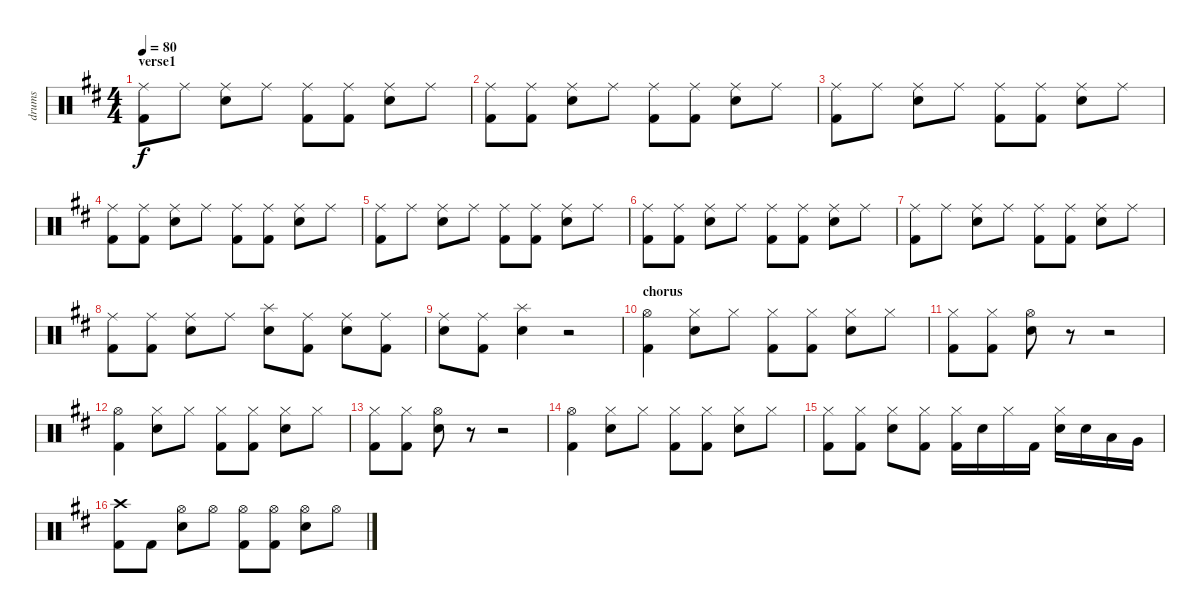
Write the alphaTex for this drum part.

\track ("drums" "drums") {instrument percussion}
\staff {score}
\articulation defaults
\ts (4 4)
\section ("" "verse1")
\tempo 80
\clef neutral
\ks bminor
("Ride (middle)" "Kick (hit) 2").8{dy f} "Ride (middle)".8 ("Ride (middle)" "Electric Snare (hit)").8 "Ride (middle)".8 ("Ride (middle)" "Kick (hit) 2").8 ("Ride (middle)" "Kick (hit) 2").8 ("Ride (middle)" "Electric Snare (hit)").8 "Ride (middle)".8 |
("Ride (middle)" "Kick (hit) 2").8 ("Ride (middle)" "Kick (hit) 2").8 ("Ride (middle)" "Electric Snare (hit)").8 "Ride (middle)".8 ("Ride (middle)" "Kick (hit) 2").8 ("Ride (middle)" "Kick (hit) 2").8 ("Ride (middle)" "Electric Snare (hit)").8 "Ride (middle)".8 |
("Ride (middle)" "Kick (hit) 2").8 "Ride (middle)".8 ("Ride (middle)" "Electric Snare (hit)").8 "Ride (middle)".8 ("Ride (middle)" "Kick (hit) 2").8 ("Ride (middle)" "Kick (hit) 2").8 ("Ride (middle)" "Electric Snare (hit)").8 "Ride (middle)".8 |
("Ride (middle)" "Kick (hit) 2").8 ("Ride (middle)" "Kick (hit) 2").8 ("Ride (middle)" "Electric Snare (hit)").8 "Ride (middle)".8 ("Ride (middle)" "Kick (hit) 2").8 ("Ride (middle)" "Kick (hit) 2").8 ("Ride (middle)" "Electric Snare (hit)").8 "Ride (middle)".8 |
("Ride (middle)" "Kick (hit) 2").8 "Ride (middle)".8 ("Ride (middle)" "Electric Snare (hit)").8 "Ride (middle)".8 ("Ride (middle)" "Kick (hit) 2").8 ("Ride (middle)" "Kick (hit) 2").8 ("Ride (middle)" "Electric Snare (hit)").8 "Ride (middle)".8 |
("Ride (middle)" "Kick (hit) 2").8 ("Ride (middle)" "Kick (hit) 2").8 ("Ride (middle)" "Electric Snare (hit)").8 "Ride (middle)".8 ("Ride (middle)" "Kick (hit) 2").8 ("Ride (middle)" "Kick (hit) 2").8 ("Ride (middle)" "Electric Snare (hit)").8 "Ride (middle)".8 |
("Ride (middle)" "Kick (hit) 2").8 "Ride (middle)".8 ("Ride (middle)" "Electric Snare (hit)").8 "Ride (middle)".8 ("Ride (middle)" "Kick (hit) 2").8 ("Ride (middle)" "Kick (hit) 2").8 ("Ride (middle)" "Electric Snare (hit)").8 "Ride (middle)".8 |
("Ride (middle)" "Kick (hit) 2").8 ("Ride (middle)" "Kick (hit) 2").8 ("Ride (middle)" "Electric Snare (hit)").8 "Ride (middle)".8 ("Splash (hit)" "Electric Snare (hit)").8 ("Ride (middle)" "Kick (hit) 2").8 ("Ride (middle)" "Electric Snare (hit)").8 ("Ride (middle)" "Kick (hit) 2").8 |
("Ride (middle)" "Electric Snare (hit)").8 ("Ride (middle)" "Kick (hit) 2").8 ("Splash (hit)" "Electric Snare (hit)").4 r.2 |
\section ("" "chorus")
("Hi-Hat (open)" "Kick (hit) 2").4 ("Hi-Hat (closed)" "Electric Snare (hit)").8 "Hi-Hat (closed)".8 ("Hi-Hat (closed)" "Kick (hit) 2").8 ("Hi-Hat (closed)" "Kick (hit) 2").8 ("Hi-Hat (closed)" "Electric Snare (hit)").8 "Hi-Hat (closed)".8 |
("Hi-Hat (closed)" "Kick (hit) 2").8 ("Hi-Hat (closed)" "Kick (hit) 2").8 ("Hi-Hat (open)" "Electric Snare (hit)").8 r.8 r.2 |
("Hi-Hat (open)" "Kick (hit) 2").4 ("Hi-Hat (closed)" "Electric Snare (hit)").8 "Hi-Hat (closed)".8 ("Hi-Hat (closed)" "Kick (hit) 2").8 ("Hi-Hat (closed)" "Kick (hit) 2").8 ("Hi-Hat (closed)" "Electric Snare (hit)").8 "Hi-Hat (closed)".8 |
("Hi-Hat (closed)" "Kick (hit) 2").8 ("Hi-Hat (closed)" "Kick (hit) 2").8 ("Hi-Hat (open)" "Electric Snare (hit)").8 r.8 r.2 |
("Hi-Hat (open)" "Kick (hit) 2").4 ("Hi-Hat (closed)" "Electric Snare (hit)").8 "Hi-Hat (closed)".8 ("Hi-Hat (closed)" "Kick (hit) 2").8 ("Hi-Hat (closed)" "Kick (hit) 2").8 ("Hi-Hat (closed)" "Electric Snare (hit)").8 "Hi-Hat (closed)".8 |
("Hi-Hat (closed)" "Kick (hit) 2").8 ("Hi-Hat (closed)" "Kick (hit) 2").8 ("Hi-Hat (closed)" "Electric Snare (hit)").8 ("Hi-Hat (closed)" "Kick (hit) 2").8 ("Hi-Hat (closed)" "Kick (hit) 2").16 "Electric Snare (hit)".16 "Hi-Hat (closed)".16 "Kick (hit) 2".16 ("Hi-Hat (closed)" "Electric Snare (hit)").16 "Electric Snare (hit)".16 "Low Tom (hit)".16 "Very Low Tom (hit)".16 |
("Crash high (hit)" "Kick (hit) 2").8 "Kick (hit) 2".8 ("Hi-Hat (open)" "Electric Snare (hit)").8 "Hi-Hat (open)".8 ("Hi-Hat (open)" "Kick (hit) 2").8 ("Hi-Hat (open)" "Kick (hit) 2").8 ("Hi-Hat (open)" "Electric Snare (hit)").8 "Hi-Hat (open)".8
